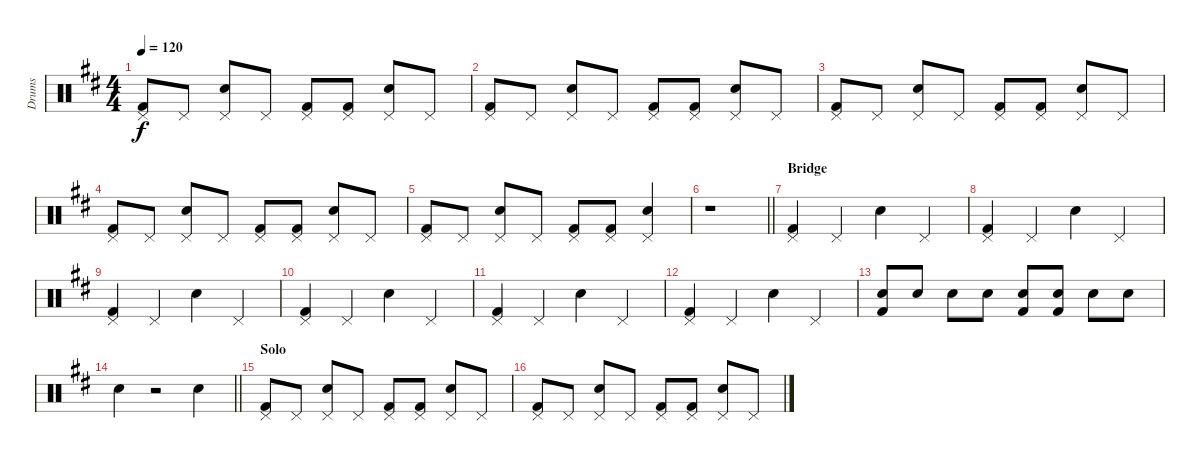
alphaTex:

\track ("Drums" "Drums") {instrument percussion}
\staff {score}
\articulation defaults
\ts (4 4)
\tempo 120
\clef neutral
\ks d
("Pedal Hi-Hat (hit)" "Kick (hit) 2").8{dy f} "Pedal Hi-Hat (hit)".8 ("Pedal Hi-Hat (hit)" "Electric Snare (hit)").8 "Pedal Hi-Hat (hit)".8 ("Pedal Hi-Hat (hit)" "Kick (hit) 2").8 ("Pedal Hi-Hat (hit)" "Kick (hit) 2").8 ("Pedal Hi-Hat (hit)" "Electric Snare (hit)").8 "Pedal Hi-Hat (hit)".8 |
("Pedal Hi-Hat (hit)" "Kick (hit) 2").8 "Pedal Hi-Hat (hit)".8 ("Pedal Hi-Hat (hit)" "Electric Snare (hit)").8 "Pedal Hi-Hat (hit)".8 ("Pedal Hi-Hat (hit)" "Kick (hit) 2").8 ("Pedal Hi-Hat (hit)" "Kick (hit) 2").8 ("Pedal Hi-Hat (hit)" "Electric Snare (hit)").8 "Pedal Hi-Hat (hit)".8 |
("Pedal Hi-Hat (hit)" "Kick (hit) 2").8 "Pedal Hi-Hat (hit)".8 ("Pedal Hi-Hat (hit)" "Electric Snare (hit)").8 "Pedal Hi-Hat (hit)".8 ("Pedal Hi-Hat (hit)" "Kick (hit) 2").8 ("Pedal Hi-Hat (hit)" "Kick (hit) 2").8 ("Pedal Hi-Hat (hit)" "Electric Snare (hit)").8 "Pedal Hi-Hat (hit)".8 |
("Pedal Hi-Hat (hit)" "Kick (hit) 2").8 "Pedal Hi-Hat (hit)".8 ("Pedal Hi-Hat (hit)" "Electric Snare (hit)").8 "Pedal Hi-Hat (hit)".8 ("Pedal Hi-Hat (hit)" "Kick (hit) 2").8 ("Pedal Hi-Hat (hit)" "Kick (hit) 2").8 ("Pedal Hi-Hat (hit)" "Electric Snare (hit)").8 "Pedal Hi-Hat (hit)".8 |
("Pedal Hi-Hat (hit)" "Kick (hit) 2").8 "Pedal Hi-Hat (hit)".8 ("Pedal Hi-Hat (hit)" "Electric Snare (hit)").8 "Pedal Hi-Hat (hit)".8 ("Pedal Hi-Hat (hit)" "Kick (hit) 2").8 ("Pedal Hi-Hat (hit)" "Kick (hit) 2").8 ("Pedal Hi-Hat (hit)" "Electric Snare (hit)").4 |
\barLineRight lightlight
r.1 |
\section ("" "Bridge")
("Pedal Hi-Hat (hit)" "Kick (hit) 2").4 "Pedal Hi-Hat (hit)".4 "Electric Snare (hit)".4 "Pedal Hi-Hat (hit)".4 |
("Pedal Hi-Hat (hit)" "Kick (hit) 2").4 "Pedal Hi-Hat (hit)".4 "Electric Snare (hit)".4 "Pedal Hi-Hat (hit)".4 |
("Pedal Hi-Hat (hit)" "Kick (hit) 2").4 "Pedal Hi-Hat (hit)".4 "Electric Snare (hit)".4 "Pedal Hi-Hat (hit)".4 |
("Pedal Hi-Hat (hit)" "Kick (hit) 2").4 "Pedal Hi-Hat (hit)".4 "Electric Snare (hit)".4 "Pedal Hi-Hat (hit)".4 |
("Pedal Hi-Hat (hit)" "Kick (hit) 2").4 "Pedal Hi-Hat (hit)".4 "Electric Snare (hit)".4 "Pedal Hi-Hat (hit)".4 |
("Pedal Hi-Hat (hit)" "Kick (hit) 2").4 "Pedal Hi-Hat (hit)".4 "Electric Snare (hit)".4 "Pedal Hi-Hat (hit)".4 |
("Electric Snare (hit)" "Kick (hit) 2").8 "Electric Snare (hit)".8 "Electric Snare (hit)".8 "Electric Snare (hit)".8 ("Electric Snare (hit)" "Kick (hit) 2").8 ("Electric Snare (hit)" "Kick (hit) 2").8 "Electric Snare (hit)".8 "Electric Snare (hit)".8 |
\barLineRight lightlight "Electric Snare (hit)".4
r.2 "Electric Snare (hit)".4 |
\section ("" "Solo")
("Pedal Hi-Hat (hit)" "Kick (hit) 2").8 "Pedal Hi-Hat (hit)".8 ("Pedal Hi-Hat (hit)" "Electric Snare (hit)").8 "Pedal Hi-Hat (hit)".8 ("Pedal Hi-Hat (hit)" "Kick (hit) 2").8 ("Pedal Hi-Hat (hit)" "Kick (hit) 2").8 ("Pedal Hi-Hat (hit)" "Electric Snare (hit)").8 "Pedal Hi-Hat (hit)".8 |
("Pedal Hi-Hat (hit)" "Kick (hit) 2").8 "Pedal Hi-Hat (hit)".8 ("Pedal Hi-Hat (hit)" "Electric Snare (hit)").8 "Pedal Hi-Hat (hit)".8 ("Pedal Hi-Hat (hit)" "Kick (hit) 2").8 ("Pedal Hi-Hat (hit)" "Kick (hit) 2").8 ("Pedal Hi-Hat (hit)" "Electric Snare (hit)").8 "Pedal Hi-Hat (hit)".8
